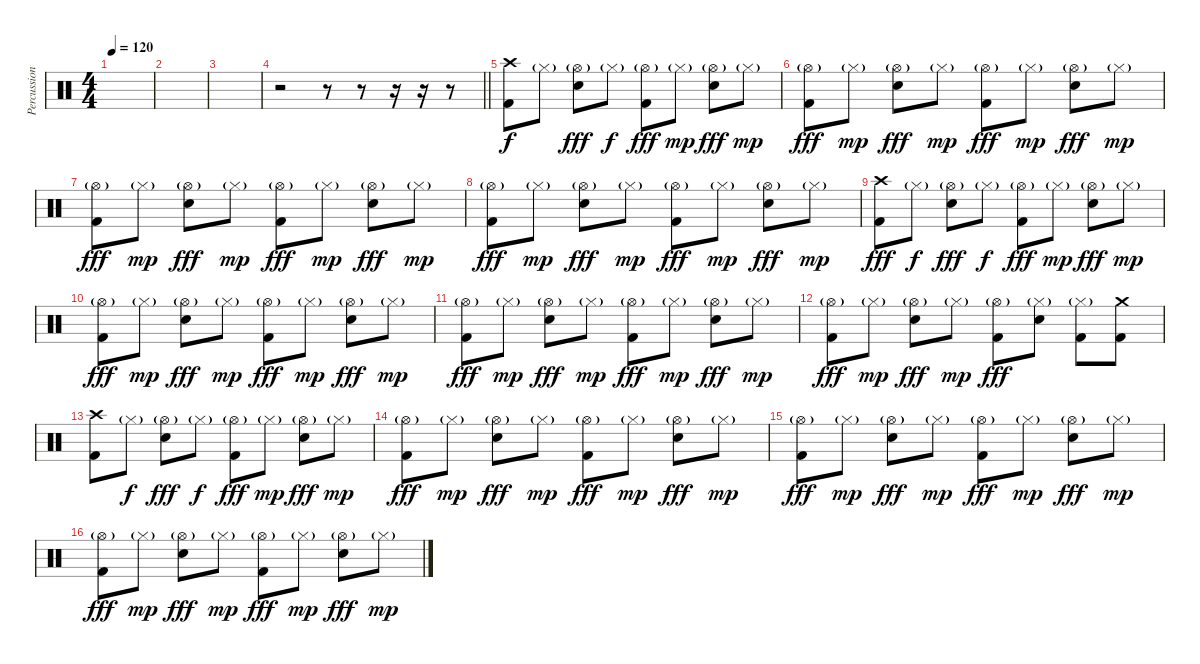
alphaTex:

\track ("Percussion" "Percussion") {instrument percussion}
\staff {score}
\articulation defaults
\ts (4 4)
\tempo 120
\clef neutral
\ks c
|
|
|
\barLineRight lightlight
r.2 r.8 r.8 r.16 r.16 r.8 |
("Crash high (hit)" "Kick (hit) 2").8 "Hi-Hat (closed)"{g}.8{dy f} ("Hi-Hat (open)"{g} "Electric Snare (hit)").8{dy fff} "Hi-Hat (closed)"{g}.8{dy f} ("Hi-Hat (open)"{g} "Kick (hit) 2").8{dy fff} "Hi-Hat (closed)"{g}.8{dy mp} ("Hi-Hat (open)"{g} "Electric Snare (hit)").8{dy fff} "Hi-Hat (closed)"{g}.8{dy mp} |
("Hi-Hat (open)"{g} "Kick (hit) 2").8{dy fff} "Hi-Hat (closed)"{g}.8{dy mp} ("Hi-Hat (open)"{g} "Electric Snare (hit)").8{dy fff} "Hi-Hat (closed)"{g}.8{dy mp} ("Hi-Hat (open)"{g} "Kick (hit) 2").8{dy fff} "Hi-Hat (closed)"{g}.8{dy mp} ("Hi-Hat (open)"{g} "Electric Snare (hit)").8{dy fff} "Hi-Hat (closed)"{g}.8{dy mp} |
("Hi-Hat (open)"{g} "Kick (hit) 2").8{dy fff} "Hi-Hat (closed)"{g}.8{dy mp} ("Hi-Hat (open)"{g} "Electric Snare (hit)").8{dy fff} "Hi-Hat (closed)"{g}.8{dy mp} ("Hi-Hat (open)"{g} "Kick (hit) 2").8{dy fff} "Hi-Hat (closed)"{g}.8{dy mp} ("Hi-Hat (open)"{g} "Electric Snare (hit)").8{dy fff} "Hi-Hat (closed)"{g}.8{dy mp} |
("Hi-Hat (open)"{g} "Kick (hit) 2").8{dy fff} "Hi-Hat (closed)"{g}.8{dy mp} ("Hi-Hat (open)"{g} "Electric Snare (hit)").8{dy fff} "Hi-Hat (closed)"{g}.8{dy mp} ("Hi-Hat (open)"{g} "Kick (hit) 2").8{dy fff} "Hi-Hat (closed)"{g}.8{dy mp} ("Hi-Hat (open)"{g} "Electric Snare (hit)").8{dy fff} "Hi-Hat (closed)"{g}.8{dy mp} |
("Crash high (hit)" "Kick (hit) 2").8{dy fff} "Hi-Hat (closed)"{g}.8{dy f} ("Hi-Hat (open)"{g} "Electric Snare (hit)").8{dy fff} "Hi-Hat (closed)"{g}.8{dy f} ("Hi-Hat (open)"{g} "Kick (hit) 2").8{dy fff} "Hi-Hat (closed)"{g}.8{dy mp} ("Hi-Hat (open)"{g} "Electric Snare (hit)").8{dy fff} "Hi-Hat (closed)"{g}.8{dy mp} |
("Hi-Hat (open)"{g} "Kick (hit) 2").8{dy fff} "Hi-Hat (closed)"{g}.8{dy mp} ("Hi-Hat (open)"{g} "Electric Snare (hit)").8{dy fff} "Hi-Hat (closed)"{g}.8{dy mp} ("Hi-Hat (open)"{g} "Kick (hit) 2").8{dy fff} "Hi-Hat (closed)"{g}.8{dy mp} ("Hi-Hat (open)"{g} "Electric Snare (hit)").8{dy fff} "Hi-Hat (closed)"{g}.8{dy mp} |
("Hi-Hat (open)"{g} "Kick (hit) 2").8{dy fff} "Hi-Hat (closed)"{g}.8{dy mp} ("Hi-Hat (open)"{g} "Electric Snare (hit)").8{dy fff} "Hi-Hat (closed)"{g}.8{dy mp} ("Hi-Hat (open)"{g} "Kick (hit) 2").8{dy fff} "Hi-Hat (closed)"{g}.8{dy mp} ("Hi-Hat (open)"{g} "Electric Snare (hit)").8{dy fff} "Hi-Hat (closed)"{g}.8{dy mp} |
("Hi-Hat (open)"{g} "Kick (hit) 2").8{dy fff} "Hi-Hat (closed)"{g}.8{dy mp} ("Hi-Hat (open)"{g} "Electric Snare (hit)").8{dy fff} "Hi-Hat (closed)"{g}.8{dy mp} ("Hi-Hat (open)"{g} "Kick (hit) 2").8{dy fff} ("Hi-Hat (closed)"{g} "Electric Snare (hit)").8 ("Hi-Hat (closed)"{g} "Kick (hit) 2").8 ("Crash medium (hit)" "Kick (hit) 2").8 |
("Crash high (hit)" "Kick (hit) 2").8 "Hi-Hat (closed)"{g}.8{dy f} ("Hi-Hat (open)"{g} "Electric Snare (hit)").8{dy fff} "Hi-Hat (closed)"{g}.8{dy f} ("Hi-Hat (open)"{g} "Kick (hit) 2").8{dy fff} "Hi-Hat (closed)"{g}.8{dy mp} ("Hi-Hat (open)"{g} "Electric Snare (hit)").8{dy fff} "Hi-Hat (closed)"{g}.8{dy mp} |
("Hi-Hat (open)"{g} "Kick (hit) 2").8{dy fff} "Hi-Hat (closed)"{g}.8{dy mp} ("Hi-Hat (open)"{g} "Electric Snare (hit)").8{dy fff} "Hi-Hat (closed)"{g}.8{dy mp} ("Hi-Hat (open)"{g} "Kick (hit) 2").8{dy fff} "Hi-Hat (closed)"{g}.8{dy mp} ("Hi-Hat (open)"{g} "Electric Snare (hit)").8{dy fff} "Hi-Hat (closed)"{g}.8{dy mp} |
("Hi-Hat (open)"{g} "Kick (hit) 2").8{dy fff} "Hi-Hat (closed)"{g}.8{dy mp} ("Hi-Hat (open)"{g} "Electric Snare (hit)").8{dy fff} "Hi-Hat (closed)"{g}.8{dy mp} ("Hi-Hat (open)"{g} "Kick (hit) 2").8{dy fff} "Hi-Hat (closed)"{g}.8{dy mp} ("Hi-Hat (open)"{g} "Electric Snare (hit)").8{dy fff} "Hi-Hat (closed)"{g}.8{dy mp} |
("Hi-Hat (open)"{g} "Kick (hit) 2").8{dy fff} "Hi-Hat (closed)"{g}.8{dy mp} ("Hi-Hat (open)"{g} "Electric Snare (hit)").8{dy fff} "Hi-Hat (closed)"{g}.8{dy mp} ("Hi-Hat (open)"{g} "Kick (hit) 2").8{dy fff} "Hi-Hat (closed)"{g}.8{dy mp} ("Hi-Hat (open)"{g} "Electric Snare (hit)").8{dy fff} "Hi-Hat (closed)"{g}.8{dy mp}
